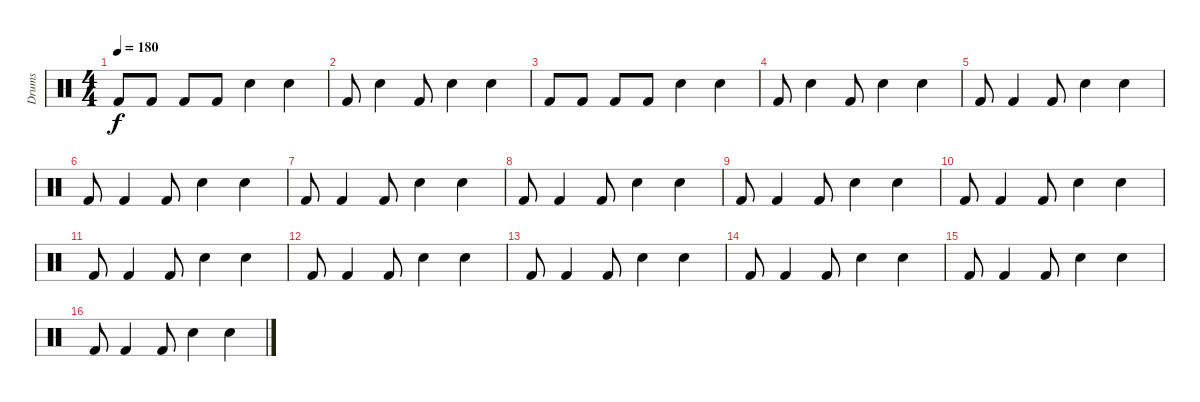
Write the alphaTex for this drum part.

\track ("Drums" "Drums") {instrument percussion}
\staff {score}
\articulation defaults
\ts (4 4)
\tempo 180
\clef neutral
\ks c "Kick (hit) 2".8{dy f} "Kick (hit) 2".8 "Kick (hit) 2".8 "Kick (hit) 2".8 "Snare (hit) 2".4 "Snare (hit) 2".4
|
"Kick (hit) 2".8 "Snare (hit) 2".4 "Kick (hit) 2".8 "Snare (hit) 2".4 "Snare (hit) 2".4 |
"Kick (hit) 2".8 "Kick (hit) 2".8 "Kick (hit) 2".8 "Kick (hit) 2".8 "Snare (hit) 2".4 "Snare (hit) 2".4 |
"Kick (hit) 2".8 "Snare (hit) 2".4 "Kick (hit) 2".8 "Snare (hit) 2".4 "Snare (hit) 2".4 |
"Kick (hit) 2".8 "Kick (hit) 2".4 "Kick (hit) 2".8 "Snare (hit) 2".4 "Snare (hit) 2".4 |
"Kick (hit) 2".8 "Kick (hit) 2".4 "Kick (hit) 2".8 "Snare (hit) 2".4 "Snare (hit) 2".4 |
"Kick (hit) 2".8 "Kick (hit) 2".4 "Kick (hit) 2".8 "Snare (hit) 2".4 "Snare (hit) 2".4 |
"Kick (hit) 2".8 "Kick (hit) 2".4 "Kick (hit) 2".8 "Snare (hit) 2".4 "Snare (hit) 2".4 |
"Kick (hit) 2".8 "Kick (hit) 2".4 "Kick (hit) 2".8 "Snare (hit) 2".4 "Snare (hit) 2".4 |
"Kick (hit) 2".8 "Kick (hit) 2".4 "Kick (hit) 2".8 "Snare (hit) 2".4 "Snare (hit) 2".4 |
"Kick (hit) 2".8 "Kick (hit) 2".4 "Kick (hit) 2".8 "Snare (hit) 2".4 "Snare (hit) 2".4 |
"Kick (hit) 2".8 "Kick (hit) 2".4 "Kick (hit) 2".8 "Snare (hit) 2".4 "Snare (hit) 2".4 |
"Kick (hit) 2".8 "Kick (hit) 2".4 "Kick (hit) 2".8 "Snare (hit) 2".4 "Snare (hit) 2".4 |
"Kick (hit) 2".8 "Kick (hit) 2".4 "Kick (hit) 2".8 "Snare (hit) 2".4 "Snare (hit) 2".4 |
"Kick (hit) 2".8 "Kick (hit) 2".4 "Kick (hit) 2".8 "Snare (hit) 2".4 "Snare (hit) 2".4 |
"Kick (hit) 2".8 "Kick (hit) 2".4 "Kick (hit) 2".8 "Snare (hit) 2".4 "Snare (hit) 2".4
